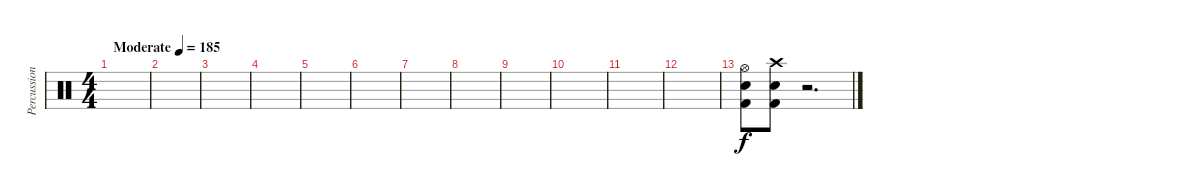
\track ("Percussion" "Percussion") {instrument percussion}
\staff {score}
\articulation defaults
\ts (4 4)
\tempo (185 "Moderate")
\clef neutral
\ks c
|
|
|
|
|
|
|
|
|
|
|
|
("Hi-Hat (open)" "Snare (hit) 2" "Kick (hit) 2").8 ("Crash high (hit)" "Snare (hit) 2" "Kick (hit) 2").8 r.2{d}
